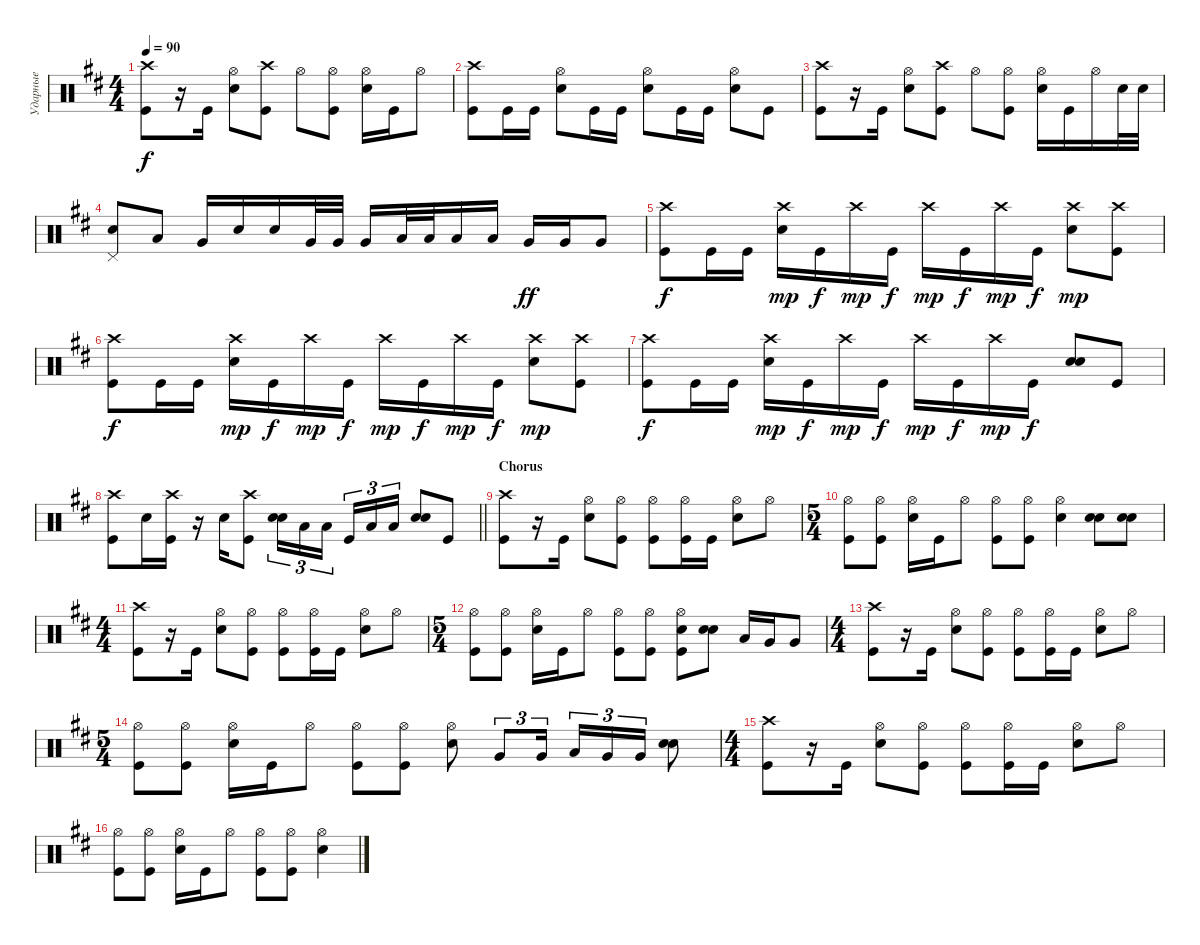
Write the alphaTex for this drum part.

\track ("Ударные" "Ударные") {instrument percussion}
\staff {score}
\articulation defaults
\ts (4 4)
\tempo 90
\clef neutral
\ks bminor
("Kick (hit)" "Crash high (hit)").8{dy f} r.16 "Kick (hit)".16 ("Snare (hit) 2" "Hi-Hat (open)").8 ("Kick (hit)" "Crash high (hit)").8 "Hi-Hat (open)".8 ("Hi-Hat (open)" "Kick (hit)").8 ("Hi-Hat (open)" "Snare (hit) 2").16 "Kick (hit)".16 "Hi-Hat (open)".8 |
("Kick (hit)" "Crash high (hit)").8 "Kick (hit)".16 "Kick (hit)".16 ("Snare (hit) 2" "Hi-Hat (open)").8 "Kick (hit)".16 "Kick (hit)".16 ("Snare (hit) 2" "Hi-Hat (open)").8 "Kick (hit)".16 "Kick (hit)".16 ("Snare (hit) 2" "Hi-Hat (open)").8 "Kick (hit)".8 |
("Kick (hit)" "Crash high (hit)").8 r.16 "Kick (hit)".16 ("Snare (hit) 2" "Hi-Hat (open)").8 ("Kick (hit)" "Crash high (hit)").8 "Hi-Hat (open)".8 ("Hi-Hat (open)" "Kick (hit)").8 ("Hi-Hat (open)" "Snare (hit) 2").16 "Kick (hit)".16 "Hi-Hat (open)".16 "Snare (hit) 2".32 "Snare (hit) 2".32 |
("Snare (hit) 2" "Pedal Hi-Hat (hit)").8 "Low Tom (hit)".8 "Very Low Tom (hit)".16 "Snare (hit) 2".16 "Snare (hit) 2".16 "Very Low Tom (hit)".32 "Very Low Tom (hit)".32 "Very Low Tom (hit)".16 "Low Floor Tom (hit)".32 "Low Floor Tom (hit)".32 "Low Floor Tom (hit)".16 "Low Floor Tom (hit)".16 "Very Low Tom (hit)".16{dy ff} "Very Low Tom (hit)".16 "Very Low Tom (hit)".8 |
("Kick (hit)" "Crash high (hit)").8{dy f} "Kick (hit)".16 "Kick (hit)".16 ("Snare (hit) 2" "Crash high (hit)").16{dy mp} "Kick (hit)".16{dy f} "Crash high (hit)".16{dy mp} "Kick (hit)".16{dy f} "Crash high (hit)".16{dy mp} "Kick (hit)".16{dy f} "Crash high (hit)".16{dy mp} "Kick (hit)".16{dy f} ("Snare (hit) 2" "Crash high (hit)").8{dy mp} ("Kick (hit)" "Crash high (hit)").8 |
("Kick (hit)" "Crash high (hit)").8{dy f} "Kick (hit)".16 "Kick (hit)".16 ("Snare (hit) 2" "Crash high (hit)").16{dy mp} "Kick (hit)".16{dy f} "Crash high (hit)".16{dy mp} "Kick (hit)".16{dy f} "Crash high (hit)".16{dy mp} "Kick (hit)".16{dy f} "Crash high (hit)".16{dy mp} "Kick (hit)".16{dy f} ("Snare (hit) 2" "Crash high (hit)").8{dy mp} ("Kick (hit)" "Crash high (hit)").8 |
("Kick (hit)" "Crash high (hit)").8{dy f} "Kick (hit)".16 "Kick (hit)".16 ("Snare (hit) 2" "Crash high (hit)").16{dy mp} "Kick (hit)".16{dy f} "Crash high (hit)".16{dy mp} "Kick (hit)".16{dy f} "Crash high (hit)".16{dy mp} "Kick (hit)".16{dy f} "Crash high (hit)".16{dy mp} "Kick (hit)".16{dy f} ("Snare (hit) 2" "Snare (hit) 2").8{bd 240} "Kick (hit)".8 |
\barLineRight lightlight
("Kick (hit)" "Crash high (hit)").8 "Snare (hit) 2".16 ("Kick (hit)" "Crash high (hit)").16 r.16 "Snare (hit) 2".16 ("Kick (hit)" "Crash high (hit)").8 ("Snare (hit) 2" "Snare (hit) 2").16{tu (3 2)} "Low Floor Tom (hit)".16{tu (3 2)} "Low Floor Tom (hit)".16{tu (3 2) beam splitsecondary} "Kick (hit)".16{tu (3 2)} "Low Floor Tom (hit)".16{tu (3 2)} "Low Floor Tom (hit)".16{tu (3 2)} ("Snare (hit) 2" "Snare (hit) 2").8{bd 240} "Kick (hit)".8 |
\section ("" "Chorus")
("Kick (hit)" "Crash high (hit)").8 r.16 "Kick (hit)".16 ("Snare (hit) 2" "Hi-Hat (open)").8 ("Kick (hit)" "Hi-Hat (open)").8 ("Kick (hit)" "Hi-Hat (open)").8 ("Kick (hit)" "Hi-Hat (open)").16 "Kick (hit)".16 ("Snare (hit) 2" "Hi-Hat (open)").8 "Hi-Hat (open)".8 |
\ts (5 4)
("Kick (hit)" "Hi-Hat (open)").8 ("Kick (hit)" "Hi-Hat (open)").8 ("Snare (hit) 2" "Hi-Hat (open)").16 "Kick (hit)".16 "Hi-Hat (open)".8 ("Kick (hit)" "Hi-Hat (open)").8 ("Kick (hit)" "Hi-Hat (open)").8 ("Snare (hit) 2" "Hi-Hat (open)").4 ("Snare (hit) 2" "Snare (hit) 2").8{bd 240} ("Snare (hit) 2" "Snare (hit) 2").8{bd 240} |
\ts (4 4)
("Kick (hit)" "Crash high (hit)").8 r.16 "Kick (hit)".16 ("Snare (hit) 2" "Hi-Hat (open)").8 ("Kick (hit)" "Hi-Hat (open)").8 ("Kick (hit)" "Hi-Hat (open)").8 ("Kick (hit)" "Hi-Hat (open)").16 "Kick (hit)".16 ("Snare (hit) 2" "Hi-Hat (open)").8 "Hi-Hat (open)".8 |
\ts (5 4)
("Kick (hit)" "Hi-Hat (open)").8 ("Kick (hit)" "Hi-Hat (open)").8 ("Snare (hit) 2" "Hi-Hat (open)").16 "Kick (hit)".16 "Hi-Hat (open)".8 ("Kick (hit)" "Hi-Hat (open)").8 ("Kick (hit)" "Hi-Hat (open)").8 ("Snare (hit) 2" "Hi-Hat (open)" "Kick (hit)").8 ("Snare (hit) 2" "Snare (hit) 2").8{bd 240} "Low Tom (hit)".16 "Very Low Tom (hit)".16 "Very Low Tom (hit)".8 |
\ts (4 4)
("Kick (hit)" "Crash high (hit)").8 r.16 "Kick (hit)".16 ("Snare (hit) 2" "Hi-Hat (open)").8 ("Kick (hit)" "Hi-Hat (open)").8 ("Kick (hit)" "Hi-Hat (open)").8 ("Kick (hit)" "Hi-Hat (open)").16 "Kick (hit)".16 ("Snare (hit) 2" "Hi-Hat (open)").8 "Hi-Hat (open)".8 |
\ts (5 4)
("Kick (hit)" "Hi-Hat (open)").8 ("Kick (hit)" "Hi-Hat (open)").8 ("Snare (hit) 2" "Hi-Hat (open)").16 "Kick (hit)".16 "Hi-Hat (open)".8 ("Kick (hit)" "Hi-Hat (open)").8 ("Kick (hit)" "Hi-Hat (open)").8 ("Snare (hit) 2" "Hi-Hat (open)").8 "Very Low Tom (hit)".8{tu (3 2)} "Very Low Tom (hit)".16{tu (3 2)} "Low Tom (hit)".16{tu (3 2)} "Very Low Tom (hit)".16{tu (3 2)} "Very Low Tom (hit)".16{tu (3 2)} ("Snare (hit) 2" "Snare (hit) 2").8{bd 240} |
\ts (4 4)
("Kick (hit)" "Crash high (hit)").8 r.16 "Kick (hit)".16 ("Snare (hit) 2" "Hi-Hat (open)").8 ("Kick (hit)" "Hi-Hat (open)").8 ("Kick (hit)" "Hi-Hat (open)").8 ("Kick (hit)" "Hi-Hat (open)").16 "Kick (hit)".16 ("Snare (hit) 2" "Hi-Hat (open)").8 "Hi-Hat (open)".8 |
("Kick (hit)" "Hi-Hat (open)").8 ("Kick (hit)" "Hi-Hat (open)").8 ("Snare (hit) 2" "Hi-Hat (open)").16 "Kick (hit)".16 "Hi-Hat (open)".8 ("Kick (hit)" "Hi-Hat (open)").8 ("Kick (hit)" "Hi-Hat (open)").8 ("Snare (hit) 2" "Hi-Hat (open)").4
